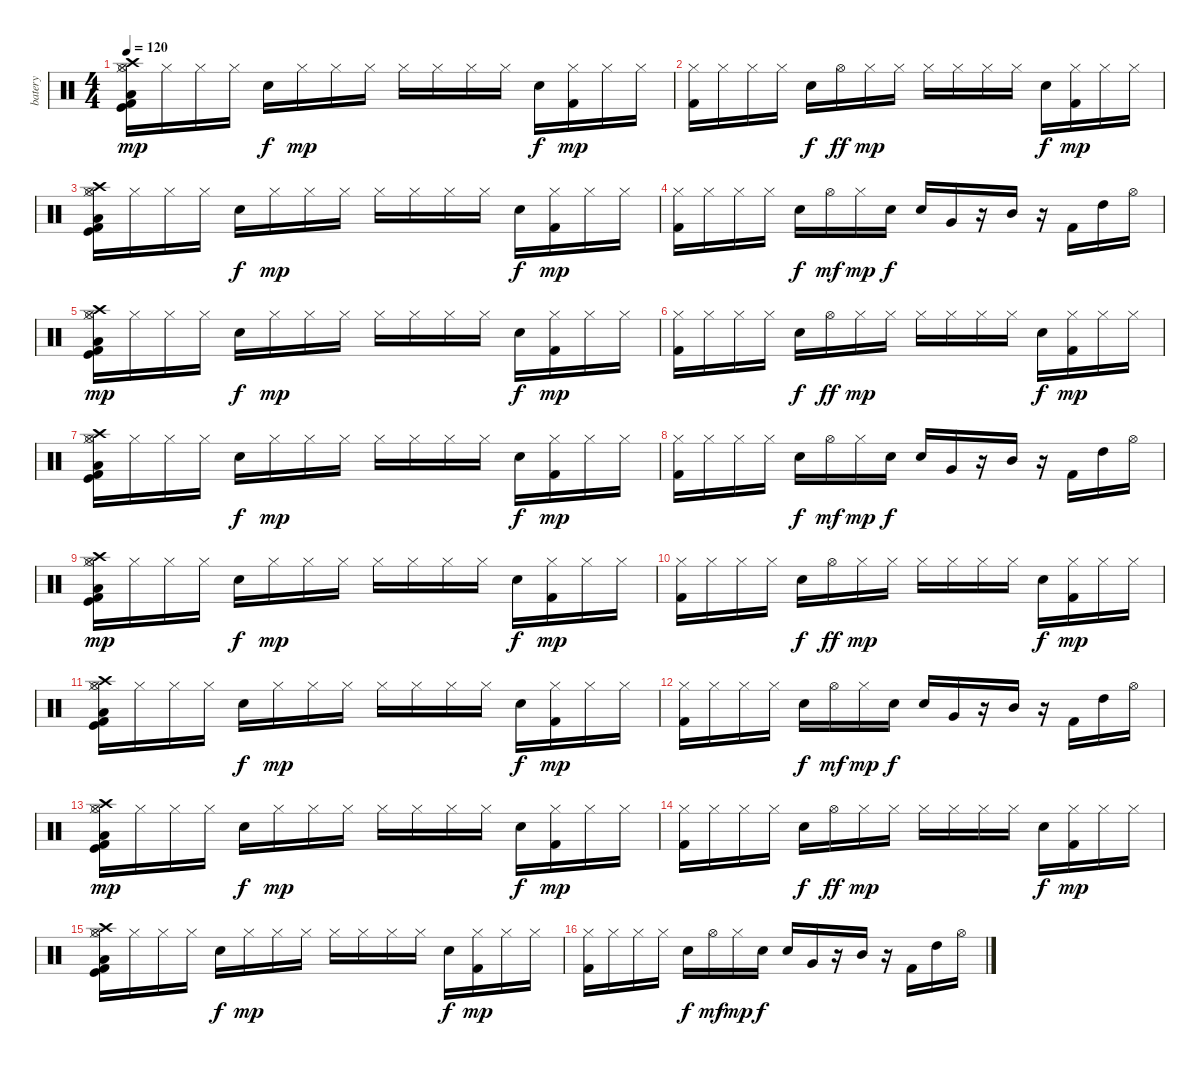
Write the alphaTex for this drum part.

\track ("batery" "batery") {instrument percussion}
\staff {score}
\articulation defaults
\ts (4 4)
\tempo 120
\clef neutral
\ks c
("Hi-Hat (closed)" "Kick (hit) 2" "Low Tom (hit)" "Crash high (hit)" "Hi-Hat (open)" "Kick (hit)").16{dy mp} "Hi-Hat (closed)".16 "Hi-Hat (closed)".16 "Hi-Hat (closed)".16 "Electric Snare (hit)".16{dy f} "Hi-Hat (closed)".16{dy mp} "Hi-Hat (closed)".16 "Hi-Hat (closed)".16 "Hi-Hat (closed)".16 "Hi-Hat (closed)".16 "Hi-Hat (closed)".16 "Hi-Hat (closed)".16 "Electric Snare (hit)".16{dy f} ("Hi-Hat (closed)" "Kick (hit) 2").16{dy mp} "Hi-Hat (closed)".16 "Hi-Hat (closed)".16 |
("Hi-Hat (closed)" "Kick (hit) 2").16 "Hi-Hat (closed)".16 "Hi-Hat (closed)".16 "Hi-Hat (closed)".16 "Electric Snare (hit)".16{dy f} "Hi-Hat (open)".16{dy ff} "Hi-Hat (closed)".16{dy mp} "Hi-Hat (closed)".16 "Hi-Hat (closed)".16 "Hi-Hat (closed)".16 "Hi-Hat (closed)".16 "Hi-Hat (closed)".16 "Electric Snare (hit)".16{dy f} ("Hi-Hat (closed)" "Kick (hit) 2").16{dy mp} "Hi-Hat (closed)".16 "Hi-Hat (closed)".16 |
("Hi-Hat (closed)" "Kick (hit) 2" "Low Tom (hit)" "Crash high (hit)" "Hi-Hat (open)" "Kick (hit)").16 "Hi-Hat (closed)".16 "Hi-Hat (closed)".16 "Hi-Hat (closed)".16 "Electric Snare (hit)".16{dy f} "Hi-Hat (closed)".16{dy mp} "Hi-Hat (closed)".16 "Hi-Hat (closed)".16 "Hi-Hat (closed)".16 "Hi-Hat (closed)".16 "Hi-Hat (closed)".16 "Hi-Hat (closed)".16 "Electric Snare (hit)".16{dy f} ("Hi-Hat (closed)" "Kick (hit) 2").16{dy mp} "Hi-Hat (closed)".16 "Hi-Hat (closed)".16 |
("Hi-Hat (closed)" "Kick (hit) 2").16 "Hi-Hat (closed)".16 "Hi-Hat (closed)".16 "Hi-Hat (closed)".16 "Electric Snare (hit)".16{dy f} "Hi-Hat (open)".16{dy mf} "Hi-Hat (closed)".16{dy mp} "Electric Snare (hit)".16{dy f} "Electric Snare (hit)".16 "Very Low Tom (hit)".16 r.16 "Mid Tom (hit)".16 r.16 "Kick (hit) 2".16 "High Tom (hit)".16 "Hi-Hat (open)".16 |
("Hi-Hat (closed)" "Kick (hit) 2" "Low Tom (hit)" "Crash high (hit)" "Hi-Hat (open)" "Kick (hit)").16{dy mp} "Hi-Hat (closed)".16 "Hi-Hat (closed)".16 "Hi-Hat (closed)".16 "Electric Snare (hit)".16{dy f} "Hi-Hat (closed)".16{dy mp} "Hi-Hat (closed)".16 "Hi-Hat (closed)".16 "Hi-Hat (closed)".16 "Hi-Hat (closed)".16 "Hi-Hat (closed)".16 "Hi-Hat (closed)".16 "Electric Snare (hit)".16{dy f} ("Hi-Hat (closed)" "Kick (hit) 2").16{dy mp} "Hi-Hat (closed)".16 "Hi-Hat (closed)".16 |
("Hi-Hat (closed)" "Kick (hit) 2").16 "Hi-Hat (closed)".16 "Hi-Hat (closed)".16 "Hi-Hat (closed)".16 "Electric Snare (hit)".16{dy f} "Hi-Hat (open)".16{dy ff} "Hi-Hat (closed)".16{dy mp} "Hi-Hat (closed)".16 "Hi-Hat (closed)".16 "Hi-Hat (closed)".16 "Hi-Hat (closed)".16 "Hi-Hat (closed)".16 "Electric Snare (hit)".16{dy f} ("Hi-Hat (closed)" "Kick (hit) 2").16{dy mp} "Hi-Hat (closed)".16 "Hi-Hat (closed)".16 |
("Hi-Hat (closed)" "Kick (hit) 2" "Low Tom (hit)" "Crash high (hit)" "Hi-Hat (open)" "Kick (hit)").16 "Hi-Hat (closed)".16 "Hi-Hat (closed)".16 "Hi-Hat (closed)".16 "Electric Snare (hit)".16{dy f} "Hi-Hat (closed)".16{dy mp} "Hi-Hat (closed)".16 "Hi-Hat (closed)".16 "Hi-Hat (closed)".16 "Hi-Hat (closed)".16 "Hi-Hat (closed)".16 "Hi-Hat (closed)".16 "Electric Snare (hit)".16{dy f} ("Hi-Hat (closed)" "Kick (hit) 2").16{dy mp} "Hi-Hat (closed)".16 "Hi-Hat (closed)".16 |
("Hi-Hat (closed)" "Kick (hit) 2").16 "Hi-Hat (closed)".16 "Hi-Hat (closed)".16 "Hi-Hat (closed)".16 "Electric Snare (hit)".16{dy f} "Hi-Hat (open)".16{dy mf} "Hi-Hat (closed)".16{dy mp} "Electric Snare (hit)".16{dy f} "Electric Snare (hit)".16 "Very Low Tom (hit)".16 r.16 "Mid Tom (hit)".16 r.16 "Kick (hit) 2".16 "High Tom (hit)".16 "Hi-Hat (open)".16 |
("Hi-Hat (closed)" "Kick (hit) 2" "Low Tom (hit)" "Crash high (hit)" "Hi-Hat (open)" "Kick (hit)").16{dy mp} "Hi-Hat (closed)".16 "Hi-Hat (closed)".16 "Hi-Hat (closed)".16 "Electric Snare (hit)".16{dy f} "Hi-Hat (closed)".16{dy mp} "Hi-Hat (closed)".16 "Hi-Hat (closed)".16 "Hi-Hat (closed)".16 "Hi-Hat (closed)".16 "Hi-Hat (closed)".16 "Hi-Hat (closed)".16 "Electric Snare (hit)".16{dy f} ("Hi-Hat (closed)" "Kick (hit) 2").16{dy mp} "Hi-Hat (closed)".16 "Hi-Hat (closed)".16 |
("Hi-Hat (closed)" "Kick (hit) 2").16 "Hi-Hat (closed)".16 "Hi-Hat (closed)".16 "Hi-Hat (closed)".16 "Electric Snare (hit)".16{dy f} "Hi-Hat (open)".16{dy ff} "Hi-Hat (closed)".16{dy mp} "Hi-Hat (closed)".16 "Hi-Hat (closed)".16 "Hi-Hat (closed)".16 "Hi-Hat (closed)".16 "Hi-Hat (closed)".16 "Electric Snare (hit)".16{dy f} ("Hi-Hat (closed)" "Kick (hit) 2").16{dy mp} "Hi-Hat (closed)".16 "Hi-Hat (closed)".16 |
("Hi-Hat (closed)" "Kick (hit) 2" "Low Tom (hit)" "Crash high (hit)" "Hi-Hat (open)" "Kick (hit)").16 "Hi-Hat (closed)".16 "Hi-Hat (closed)".16 "Hi-Hat (closed)".16 "Electric Snare (hit)".16{dy f} "Hi-Hat (closed)".16{dy mp} "Hi-Hat (closed)".16 "Hi-Hat (closed)".16 "Hi-Hat (closed)".16 "Hi-Hat (closed)".16 "Hi-Hat (closed)".16 "Hi-Hat (closed)".16 "Electric Snare (hit)".16{dy f} ("Hi-Hat (closed)" "Kick (hit) 2").16{dy mp} "Hi-Hat (closed)".16 "Hi-Hat (closed)".16 |
("Hi-Hat (closed)" "Kick (hit) 2").16 "Hi-Hat (closed)".16 "Hi-Hat (closed)".16 "Hi-Hat (closed)".16 "Electric Snare (hit)".16{dy f} "Hi-Hat (open)".16{dy mf} "Hi-Hat (closed)".16{dy mp} "Electric Snare (hit)".16{dy f} "Electric Snare (hit)".16 "Very Low Tom (hit)".16 r.16 "Mid Tom (hit)".16 r.16 "Kick (hit) 2".16 "High Tom (hit)".16 "Hi-Hat (open)".16 |
("Hi-Hat (closed)" "Kick (hit) 2" "Low Tom (hit)" "Crash high (hit)" "Hi-Hat (open)" "Kick (hit)").16{dy mp} "Hi-Hat (closed)".16 "Hi-Hat (closed)".16 "Hi-Hat (closed)".16 "Electric Snare (hit)".16{dy f} "Hi-Hat (closed)".16{dy mp} "Hi-Hat (closed)".16 "Hi-Hat (closed)".16 "Hi-Hat (closed)".16 "Hi-Hat (closed)".16 "Hi-Hat (closed)".16 "Hi-Hat (closed)".16 "Electric Snare (hit)".16{dy f} ("Hi-Hat (closed)" "Kick (hit) 2").16{dy mp} "Hi-Hat (closed)".16 "Hi-Hat (closed)".16 |
("Hi-Hat (closed)" "Kick (hit) 2").16 "Hi-Hat (closed)".16 "Hi-Hat (closed)".16 "Hi-Hat (closed)".16 "Electric Snare (hit)".16{dy f} "Hi-Hat (open)".16{dy ff} "Hi-Hat (closed)".16{dy mp} "Hi-Hat (closed)".16 "Hi-Hat (closed)".16 "Hi-Hat (closed)".16 "Hi-Hat (closed)".16 "Hi-Hat (closed)".16 "Electric Snare (hit)".16{dy f} ("Hi-Hat (closed)" "Kick (hit) 2").16{dy mp} "Hi-Hat (closed)".16 "Hi-Hat (closed)".16 |
("Hi-Hat (closed)" "Kick (hit) 2" "Low Tom (hit)" "Crash high (hit)" "Hi-Hat (open)" "Kick (hit)").16 "Hi-Hat (closed)".16 "Hi-Hat (closed)".16 "Hi-Hat (closed)".16 "Electric Snare (hit)".16{dy f} "Hi-Hat (closed)".16{dy mp} "Hi-Hat (closed)".16 "Hi-Hat (closed)".16 "Hi-Hat (closed)".16 "Hi-Hat (closed)".16 "Hi-Hat (closed)".16 "Hi-Hat (closed)".16 "Electric Snare (hit)".16{dy f} ("Hi-Hat (closed)" "Kick (hit) 2").16{dy mp} "Hi-Hat (closed)".16 "Hi-Hat (closed)".16 |
("Hi-Hat (closed)" "Kick (hit) 2").16 "Hi-Hat (closed)".16 "Hi-Hat (closed)".16 "Hi-Hat (closed)".16 "Electric Snare (hit)".16{dy f} "Hi-Hat (open)".16{dy mf} "Hi-Hat (closed)".16{dy mp} "Electric Snare (hit)".16{dy f} "Electric Snare (hit)".16 "Very Low Tom (hit)".16 r.16 "Mid Tom (hit)".16 r.16 "Kick (hit) 2".16 "High Tom (hit)".16 "Hi-Hat (open)".16
